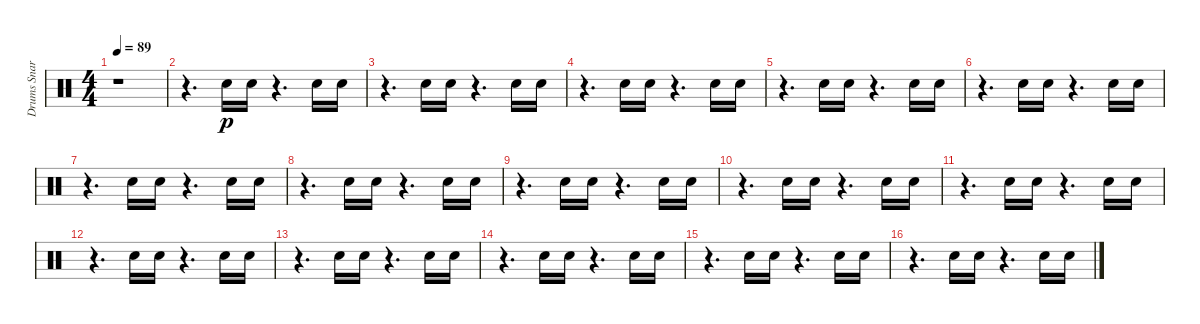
\track ("Drums Snare" "Drums Snar") {instrument percussion}
\staff {score}
\articulation defaults
\ts (4 4)
\tempo 89
\clef neutral
\ks c
r.1{dy p} |
r.4{d} "Snare (hit) 2".16 "Snare (hit) 2".16 r.4{d} "Snare (hit) 2".16 "Snare (hit) 2".16 |
r.4{d} "Snare (hit) 2".16 "Snare (hit) 2".16 r.4{d} "Snare (hit) 2".16 "Snare (hit) 2".16 |
r.4{d} "Snare (hit) 2".16 "Snare (hit) 2".16 r.4{d} "Snare (hit) 2".16 "Snare (hit) 2".16 |
r.4{d} "Snare (hit) 2".16 "Snare (hit) 2".16 r.4{d} "Snare (hit) 2".16 "Snare (hit) 2".16 |
r.4{d} "Snare (hit) 2".16 "Snare (hit) 2".16 r.4{d} "Snare (hit) 2".16 "Snare (hit) 2".16 |
r.4{d} "Snare (hit) 2".16 "Snare (hit) 2".16 r.4{d} "Snare (hit) 2".16 "Snare (hit) 2".16 |
r.4{d} "Snare (hit) 2".16 "Snare (hit) 2".16 r.4{d} "Snare (hit) 2".16 "Snare (hit) 2".16 |
r.4{d} "Snare (hit) 2".16 "Snare (hit) 2".16 r.4{d} "Snare (hit) 2".16 "Snare (hit) 2".16 |
r.4{d} "Snare (hit) 2".16 "Snare (hit) 2".16 r.4{d} "Snare (hit) 2".16 "Snare (hit) 2".16 |
r.4{d} "Snare (hit) 2".16 "Snare (hit) 2".16 r.4{d} "Snare (hit) 2".16 "Snare (hit) 2".16 |
r.4{d} "Snare (hit) 2".16 "Snare (hit) 2".16 r.4{d} "Snare (hit) 2".16 "Snare (hit) 2".16 |
r.4{d} "Snare (hit) 2".16 "Snare (hit) 2".16 r.4{d} "Snare (hit) 2".16 "Snare (hit) 2".16 |
r.4{d} "Snare (hit) 2".16 "Snare (hit) 2".16 r.4{d} "Snare (hit) 2".16 "Snare (hit) 2".16 |
r.4{d} "Snare (hit) 2".16 "Snare (hit) 2".16 r.4{d} "Snare (hit) 2".16 "Snare (hit) 2".16 |
r.4{d} "Snare (hit) 2".16 "Snare (hit) 2".16 r.4{d} "Snare (hit) 2".16 "Snare (hit) 2".16
